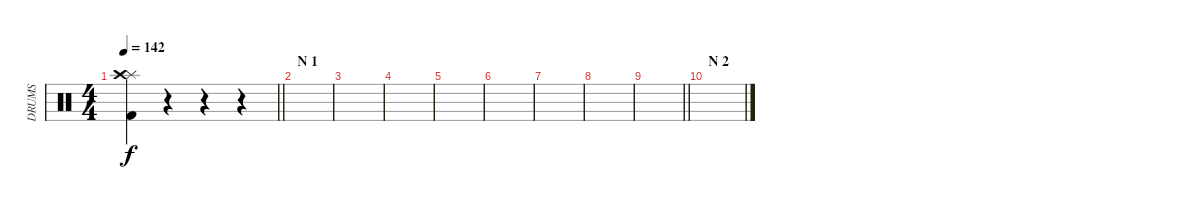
\track ("DRUMS" "DRUMS") {instrument percussion}
\staff {score}
\articulation defaults
\ts (4 4)
\tempo 142
\clef neutral
\barLineRight lightlight
\ks c
("Splash (hit)" "Crash high (hit)" "Kick (hit) 2").4{dy f} r.4 r.4 r.4 |
\section ("" "N 1")
|
|
|
|
|
|
|
\barLineRight lightlight
|
\section ("" "N 2")
